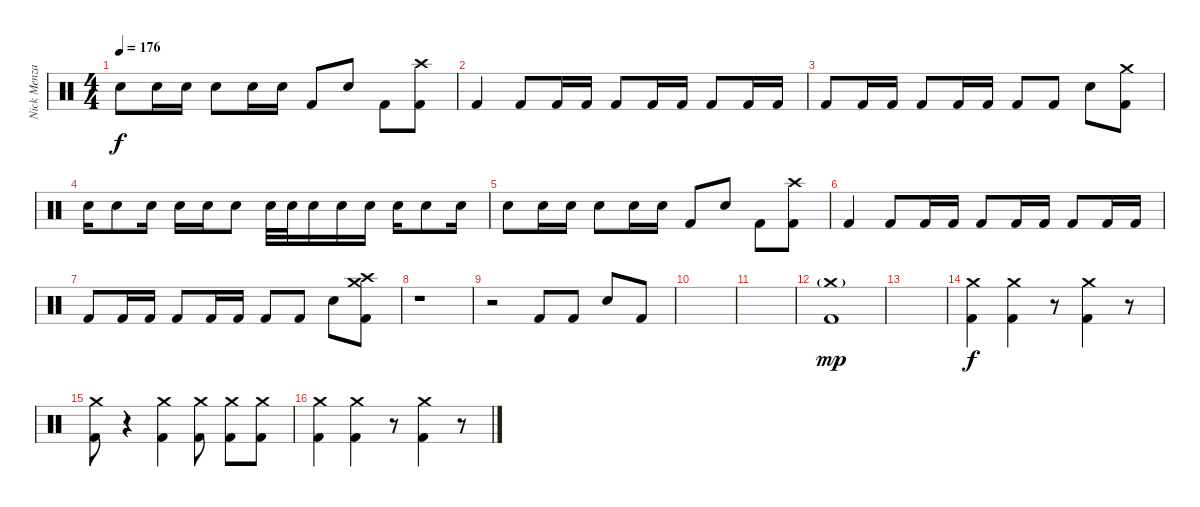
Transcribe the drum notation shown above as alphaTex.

\track ("Nick Menza" "Nick Menza") {instrument percussion}
\staff {score}
\articulation defaults
\ts (4 4)
\tempo 176
\clef neutral
\ks c "Electric Snare (hit)".8{dy f} "Electric Snare (hit)".16 "Electric Snare (hit)".16 "Electric Snare (hit)".8 "Electric Snare (hit)".16 "Electric Snare (hit)".16 "Kick (hit) 2".8 "Electric Snare (hit)".8 "Kick (hit) 2".8
("Crash high (hit)" "Kick (hit) 2").8 |
"Kick (hit) 2".4 "Kick (hit) 2".8 "Kick (hit) 2".16 "Kick (hit) 2".16 "Kick (hit) 2".8 "Kick (hit) 2".16 "Kick (hit) 2".16 "Kick (hit) 2".8 "Kick (hit) 2".16 "Kick (hit) 2".16 |
"Kick (hit) 2".8 "Kick (hit) 2".16 "Kick (hit) 2".16 "Kick (hit) 2".8 "Kick (hit) 2".16 "Kick (hit) 2".16 "Kick (hit) 2".8 "Kick (hit) 2".8 "Electric Snare (hit)".8 ("Crash medium (hit)" "Kick (hit) 2").8 |
"Electric Snare (hit)".16 "Electric Snare (hit)".8 "Electric Snare (hit)".16 "Electric Snare (hit)".16 "Electric Snare (hit)".16 "Electric Snare (hit)".8 "Electric Snare (hit)".32 "Electric Snare (hit)".32 "Electric Snare (hit)".16 "Electric Snare (hit)".16 "Electric Snare (hit)".16 "Electric Snare (hit)".16 "Electric Snare (hit)".8 "Electric Snare (hit)".16 |
"Electric Snare (hit)".8 "Electric Snare (hit)".16 "Electric Snare (hit)".16 "Electric Snare (hit)".8 "Electric Snare (hit)".16 "Electric Snare (hit)".16 "Kick (hit) 2".8 "Electric Snare (hit)".8 "Kick (hit) 2".8 ("Crash high (hit)" "Kick (hit) 2").8 |
"Kick (hit) 2".4 "Kick (hit) 2".8 "Kick (hit) 2".16 "Kick (hit) 2".16 "Kick (hit) 2".8 "Kick (hit) 2".16 "Kick (hit) 2".16 "Kick (hit) 2".8 "Kick (hit) 2".16 "Kick (hit) 2".16 |
"Kick (hit) 2".8 "Kick (hit) 2".16 "Kick (hit) 2".16 "Kick (hit) 2".8 "Kick (hit) 2".16 "Kick (hit) 2".16 "Kick (hit) 2".8 "Kick (hit) 2".8 "Electric Snare (hit)".8 ("Crash medium (hit)" "Crash high (hit)" "Kick (hit) 2").8 |
r.1 |
r.2 "Kick (hit) 2".8 "Kick (hit) 2".8 "Electric Snare (hit)".8 "Kick (hit) 2".8 |
|
|
("Crash medium (hit)"{g} "Kick (hit) 2").1{dy mp} |
|
("Crash medium (hit)" "Kick (hit) 2").4{dy f} ("Crash medium (hit)" "Kick (hit) 2").4 r.8 ("Crash medium (hit)" "Kick (hit) 2").4 r.8 |
("Crash medium (hit)" "Kick (hit) 2").8 r.4 ("Crash medium (hit)" "Kick (hit) 2").4 ("Crash medium (hit)" "Kick (hit) 2").8 ("Crash medium (hit)" "Kick (hit) 2").8 ("Crash medium (hit)" "Kick (hit) 2").8 |
("Crash medium (hit)" "Kick (hit) 2").4 ("Crash medium (hit)" "Kick (hit) 2").4 r.8 ("Crash medium (hit)" "Kick (hit) 2").4 r.8
